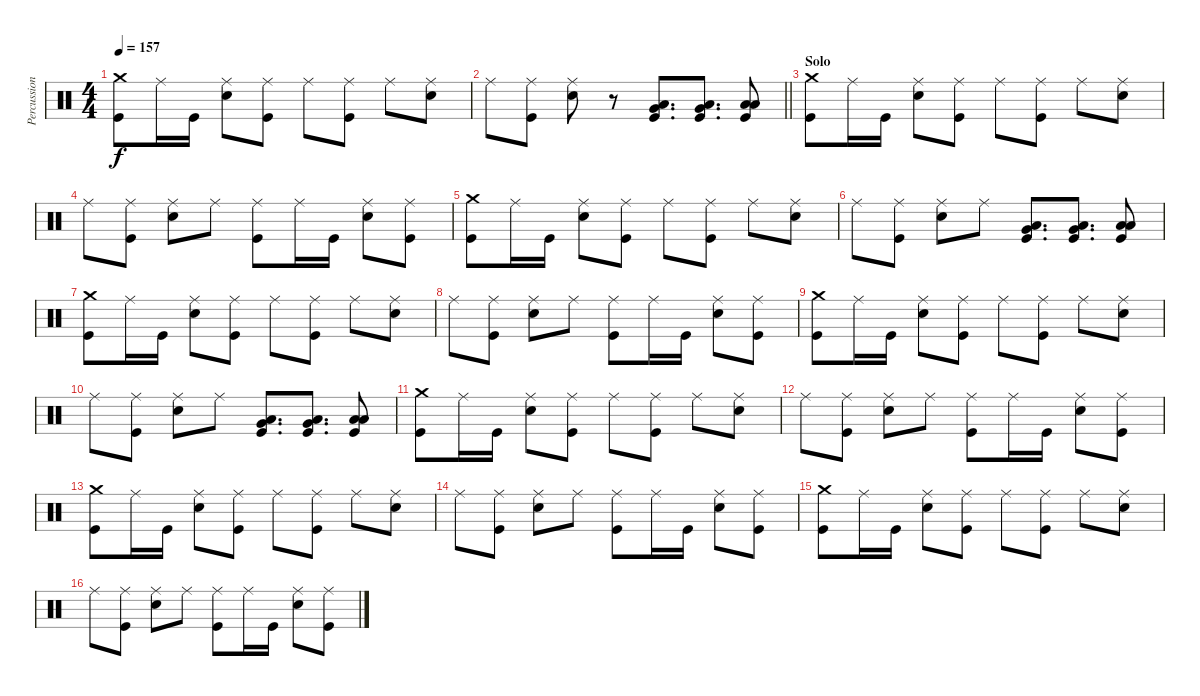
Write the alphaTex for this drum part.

\track ("Percussion" "Percussion") {instrument percussion}
\staff {score}
\articulation defaults
\ts (4 4)
\tempo 157
\clef neutral
\ks c
("Crash medium (hit)" "Kick (hit)").8{dy f} "Ride (middle)".16 "Kick (hit)".16 ("Ride (middle)" "Snare (hit) 2").8 ("Ride (middle)" "Kick (hit)").8 "Ride (middle)".8 ("Ride (middle)" "Kick (hit)").8 "Ride (middle)".8 ("Ride (middle)" "Snare (hit) 2").8 |
\barLineRight lightlight "Ride (middle)".8
("Ride (middle)" "Kick (hit)").8 ("Ride (middle)" "Snare (hit) 2").8 r.8 ("Low Tom (hit)" "Very Low Tom (hit)" "Kick (hit)").8{d} ("Low Tom (hit)" "Very Low Tom (hit)" "Kick (hit)").8{d} ("Low Tom (hit)" "Low Floor Tom (hit)" "Kick (hit)").8 |
\section ("" "Solo")
("Crash medium (hit)" "Kick (hit)").8 "Ride (middle)".16 "Kick (hit)".16 ("Ride (middle)" "Snare (hit) 2").8 ("Ride (middle)" "Kick (hit)").8 "Ride (middle)".8 ("Ride (middle)" "Kick (hit)").8 "Ride (middle)".8 ("Ride (middle)" "Snare (hit) 2").8 |
"Ride (middle)".8 ("Ride (middle)" "Kick (hit)").8 ("Ride (middle)" "Snare (hit) 2").8 "Ride (middle)".8 ("Ride (middle)" "Kick (hit)").8 "Ride (middle)".16 "Kick (hit)".16 ("Ride (middle)" "Snare (hit) 2").8 ("Ride (middle)" "Kick (hit)").8 |
("Crash medium (hit)" "Kick (hit)").8 "Ride (middle)".16 "Kick (hit)".16 ("Ride (middle)" "Snare (hit) 2").8 ("Ride (middle)" "Kick (hit)").8 "Ride (middle)".8 ("Ride (middle)" "Kick (hit)").8 "Ride (middle)".8 ("Ride (middle)" "Snare (hit) 2").8 |
"Ride (middle)".8 ("Ride (middle)" "Kick (hit)").8 ("Ride (middle)" "Snare (hit) 2").8 "Ride (middle)".8 ("Low Tom (hit)" "Very Low Tom (hit)" "Kick (hit)").8{d} ("Low Tom (hit)" "Very Low Tom (hit)" "Kick (hit)").8{d} ("Low Tom (hit)" "Low Floor Tom (hit)" "Kick (hit)").8 |
("Crash medium (hit)" "Kick (hit)").8 "Ride (middle)".16 "Kick (hit)".16 ("Ride (middle)" "Snare (hit) 2").8 ("Ride (middle)" "Kick (hit)").8 "Ride (middle)".8 ("Ride (middle)" "Kick (hit)").8 "Ride (middle)".8 ("Ride (middle)" "Snare (hit) 2").8 |
"Ride (middle)".8 ("Ride (middle)" "Kick (hit)").8 ("Ride (middle)" "Snare (hit) 2").8 "Ride (middle)".8 ("Ride (middle)" "Kick (hit)").8 "Ride (middle)".16 "Kick (hit)".16 ("Ride (middle)" "Snare (hit) 2").8 ("Ride (middle)" "Kick (hit)").8 |
("Crash medium (hit)" "Kick (hit)").8 "Ride (middle)".16 "Kick (hit)".16 ("Ride (middle)" "Snare (hit) 2").8 ("Ride (middle)" "Kick (hit)").8 "Ride (middle)".8 ("Ride (middle)" "Kick (hit)").8 "Ride (middle)".8 ("Ride (middle)" "Snare (hit) 2").8 |
"Ride (middle)".8 ("Ride (middle)" "Kick (hit)").8 ("Ride (middle)" "Snare (hit) 2").8 "Ride (middle)".8 ("Low Tom (hit)" "Very Low Tom (hit)" "Kick (hit)").8{d} ("Low Tom (hit)" "Very Low Tom (hit)" "Kick (hit)").8{d} ("Low Tom (hit)" "Low Floor Tom (hit)" "Kick (hit)").8 |
("Crash medium (hit)" "Kick (hit)").8 "Ride (middle)".16 "Kick (hit)".16 ("Ride (middle)" "Snare (hit) 2").8 ("Ride (middle)" "Kick (hit)").8 "Ride (middle)".8 ("Ride (middle)" "Kick (hit)").8 "Ride (middle)".8 ("Ride (middle)" "Snare (hit) 2").8 |
"Ride (middle)".8 ("Ride (middle)" "Kick (hit)").8 ("Ride (middle)" "Snare (hit) 2").8 "Ride (middle)".8 ("Ride (middle)" "Kick (hit)").8 "Ride (middle)".16 "Kick (hit)".16 ("Ride (middle)" "Snare (hit) 2").8 ("Ride (middle)" "Kick (hit)").8 |
("Crash medium (hit)" "Kick (hit)").8 "Ride (middle)".16 "Kick (hit)".16 ("Ride (middle)" "Snare (hit) 2").8 ("Ride (middle)" "Kick (hit)").8 "Ride (middle)".8 ("Ride (middle)" "Kick (hit)").8 "Ride (middle)".8 ("Ride (middle)" "Snare (hit) 2").8 |
"Ride (middle)".8 ("Ride (middle)" "Kick (hit)").8 ("Ride (middle)" "Snare (hit) 2").8 "Ride (middle)".8 ("Ride (middle)" "Kick (hit)").8 "Ride (middle)".16 "Kick (hit)".16 ("Ride (middle)" "Snare (hit) 2").8 ("Ride (middle)" "Kick (hit)").8 |
("Crash medium (hit)" "Kick (hit)").8 "Ride (middle)".16 "Kick (hit)".16 ("Ride (middle)" "Snare (hit) 2").8 ("Ride (middle)" "Kick (hit)").8 "Ride (middle)".8 ("Ride (middle)" "Kick (hit)").8 "Ride (middle)".8 ("Ride (middle)" "Snare (hit) 2").8 |
"Ride (middle)".8 ("Ride (middle)" "Kick (hit)").8 ("Ride (middle)" "Snare (hit) 2").8 "Ride (middle)".8 ("Ride (middle)" "Kick (hit)").8 "Ride (middle)".16 "Kick (hit)".16 ("Ride (middle)" "Snare (hit) 2").8 ("Ride (middle)" "Kick (hit)").8
